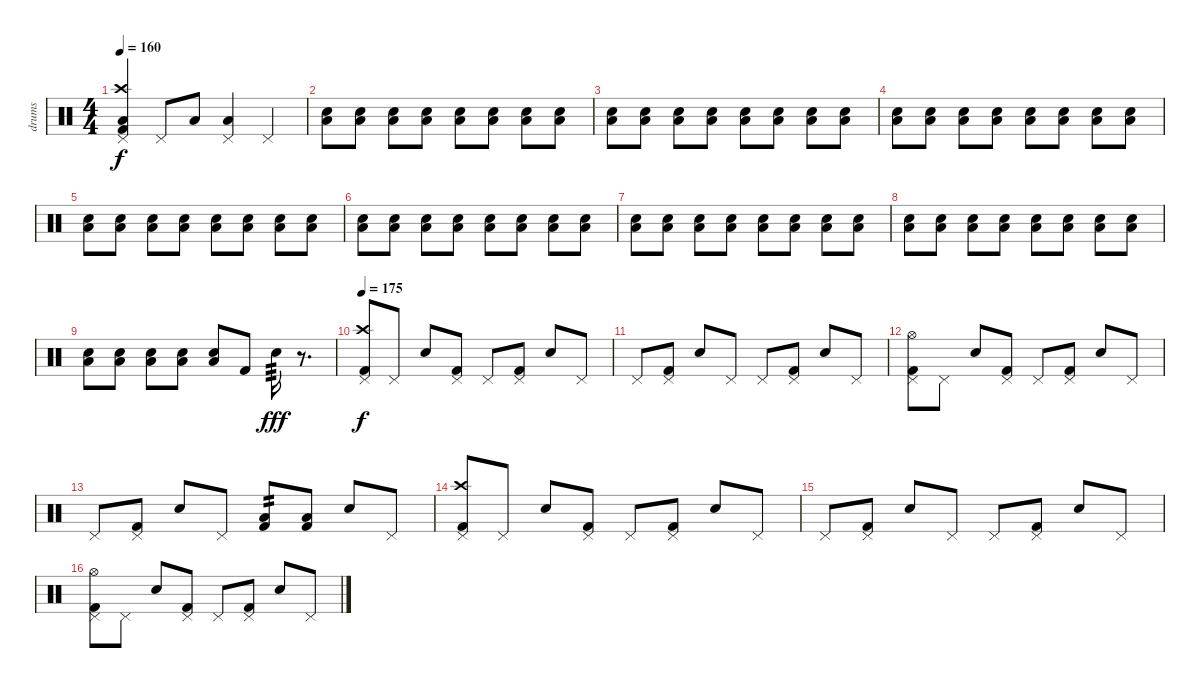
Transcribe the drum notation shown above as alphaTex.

\track ("drums" "drums") {instrument percussion}
\staff {score}
\articulation defaults
\ts (4 4)
\tempo 160
\clef neutral
\ks c
("Low Tom (hit)" "Pedal Hi-Hat (hit)" "Crash high (hit)" "Kick (hit) 2").4{dy f} "Pedal Hi-Hat (hit)".8 "Low Tom (hit)".8 ("Low Tom (hit)" "Pedal Hi-Hat (hit)").4 "Pedal Hi-Hat (hit)".4 |
("Low Tom (hit)" "Electric Snare (hit)").8{volume 8} ("Low Tom (hit)" "Electric Snare (hit)").8 ("Low Tom (hit)" "Electric Snare (hit)").8 ("Low Tom (hit)" "Electric Snare (hit)").8 ("Low Tom (hit)" "Electric Snare (hit)").8 ("Low Tom (hit)" "Electric Snare (hit)").8 ("Low Tom (hit)" "Electric Snare (hit)").8 ("Low Tom (hit)" "Electric Snare (hit)").8 |
("Low Tom (hit)" "Electric Snare (hit)").8 ("Low Tom (hit)" "Electric Snare (hit)").8 ("Low Tom (hit)" "Electric Snare (hit)").8 ("Low Tom (hit)" "Electric Snare (hit)").8 ("Low Tom (hit)" "Electric Snare (hit)").8 ("Low Tom (hit)" "Electric Snare (hit)").8 ("Low Tom (hit)" "Electric Snare (hit)").8 ("Low Tom (hit)" "Electric Snare (hit)").8 |
("Low Tom (hit)" "Electric Snare (hit)").8 ("Low Tom (hit)" "Electric Snare (hit)").8 ("Low Tom (hit)" "Electric Snare (hit)").8 ("Low Tom (hit)" "Electric Snare (hit)").8 ("Low Tom (hit)" "Electric Snare (hit)").8 ("Low Tom (hit)" "Electric Snare (hit)").8 ("Low Tom (hit)" "Electric Snare (hit)").8 ("Low Tom (hit)" "Electric Snare (hit)").8 |
("Low Tom (hit)" "Electric Snare (hit)").8 ("Low Tom (hit)" "Electric Snare (hit)").8 ("Low Tom (hit)" "Electric Snare (hit)").8 ("Low Tom (hit)" "Electric Snare (hit)").8 ("Low Tom (hit)" "Electric Snare (hit)").8 ("Low Tom (hit)" "Electric Snare (hit)").8 ("Low Tom (hit)" "Electric Snare (hit)").8 ("Low Tom (hit)" "Electric Snare (hit)").8 |
("Low Tom (hit)" "Electric Snare (hit)").8{volume 16} ("Low Tom (hit)" "Electric Snare (hit)").8 ("Low Tom (hit)" "Electric Snare (hit)").8 ("Low Tom (hit)" "Electric Snare (hit)").8 ("Low Tom (hit)" "Electric Snare (hit)").8 ("Low Tom (hit)" "Electric Snare (hit)").8 ("Low Tom (hit)" "Electric Snare (hit)").8 ("Low Tom (hit)" "Electric Snare (hit)").8 |
("Low Tom (hit)" "Electric Snare (hit)").8 ("Low Tom (hit)" "Electric Snare (hit)").8 ("Low Tom (hit)" "Electric Snare (hit)").8 ("Low Tom (hit)" "Electric Snare (hit)").8 ("Low Tom (hit)" "Electric Snare (hit)").8 ("Low Tom (hit)" "Electric Snare (hit)").8 ("Low Tom (hit)" "Electric Snare (hit)").8 ("Low Tom (hit)" "Electric Snare (hit)").8 |
("Low Tom (hit)" "Electric Snare (hit)").8 ("Low Tom (hit)" "Electric Snare (hit)").8 ("Low Tom (hit)" "Electric Snare (hit)").8 ("Low Tom (hit)" "Electric Snare (hit)").8 ("Low Tom (hit)" "Electric Snare (hit)").8 ("Low Tom (hit)" "Electric Snare (hit)").8 ("Low Tom (hit)" "Electric Snare (hit)").8 ("Low Tom (hit)" "Electric Snare (hit)").8 |
("Low Tom (hit)" "Electric Snare (hit)").8 ("Low Tom (hit)" "Electric Snare (hit)").8 ("Low Tom (hit)" "Electric Snare (hit)").8 ("Low Tom (hit)" "Electric Snare (hit)").8 ("Low Tom (hit)" "Electric Snare (hit)").8 "Kick (hit) 2".8 "Electric Snare (hit)".16{tp 3 dy fff} r.8{d} |
\tempo 175
("Crash high (hit)" "Pedal Hi-Hat (hit)" "Kick (hit) 2").8{dy f} "Pedal Hi-Hat (hit)".8 "Electric Snare (hit)".8 ("Pedal Hi-Hat (hit)" "Kick (hit) 2").8 "Pedal Hi-Hat (hit)".8 ("Pedal Hi-Hat (hit)" "Kick (hit) 2").8 "Electric Snare (hit)".8 "Pedal Hi-Hat (hit)".8 |
"Pedal Hi-Hat (hit)".8 ("Pedal Hi-Hat (hit)" "Kick (hit) 2").8 "Electric Snare (hit)".8 "Pedal Hi-Hat (hit)".8 "Pedal Hi-Hat (hit)".8 ("Pedal Hi-Hat (hit)" "Kick (hit) 2").8 "Electric Snare (hit)".8 "Pedal Hi-Hat (hit)".8 |
("Hi-Hat (open)" "Pedal Hi-Hat (hit)" "Kick (hit) 2").8 "Pedal Hi-Hat (hit)".8 "Electric Snare (hit)".8 ("Pedal Hi-Hat (hit)" "Kick (hit) 2").8 "Pedal Hi-Hat (hit)".8 ("Pedal Hi-Hat (hit)" "Kick (hit) 2").8 "Electric Snare (hit)".8 "Pedal Hi-Hat (hit)".8 |
"Pedal Hi-Hat (hit)".8 ("Pedal Hi-Hat (hit)" "Kick (hit) 2").8 "Electric Snare (hit)".8 "Pedal Hi-Hat (hit)".8 ("Low Tom (hit)" "Kick (hit) 2").8{tp 2} ("Low Tom (hit)" "Kick (hit) 2").8 "Electric Snare (hit)".8 "Pedal Hi-Hat (hit)".8 |
("Crash high (hit)" "Pedal Hi-Hat (hit)" "Kick (hit) 2").8 "Pedal Hi-Hat (hit)".8 "Electric Snare (hit)".8 ("Pedal Hi-Hat (hit)" "Kick (hit) 2").8 "Pedal Hi-Hat (hit)".8 ("Pedal Hi-Hat (hit)" "Kick (hit) 2").8 "Electric Snare (hit)".8 "Pedal Hi-Hat (hit)".8 |
"Pedal Hi-Hat (hit)".8 ("Pedal Hi-Hat (hit)" "Kick (hit) 2").8 "Electric Snare (hit)".8 "Pedal Hi-Hat (hit)".8 "Pedal Hi-Hat (hit)".8 ("Pedal Hi-Hat (hit)" "Kick (hit) 2").8 "Electric Snare (hit)".8 "Pedal Hi-Hat (hit)".8 |
("Hi-Hat (open)" "Pedal Hi-Hat (hit)" "Kick (hit) 2").8 "Pedal Hi-Hat (hit)".8 "Electric Snare (hit)".8 ("Pedal Hi-Hat (hit)" "Kick (hit) 2").8 "Pedal Hi-Hat (hit)".8 ("Pedal Hi-Hat (hit)" "Kick (hit) 2").8 "Electric Snare (hit)".8 "Pedal Hi-Hat (hit)".8
